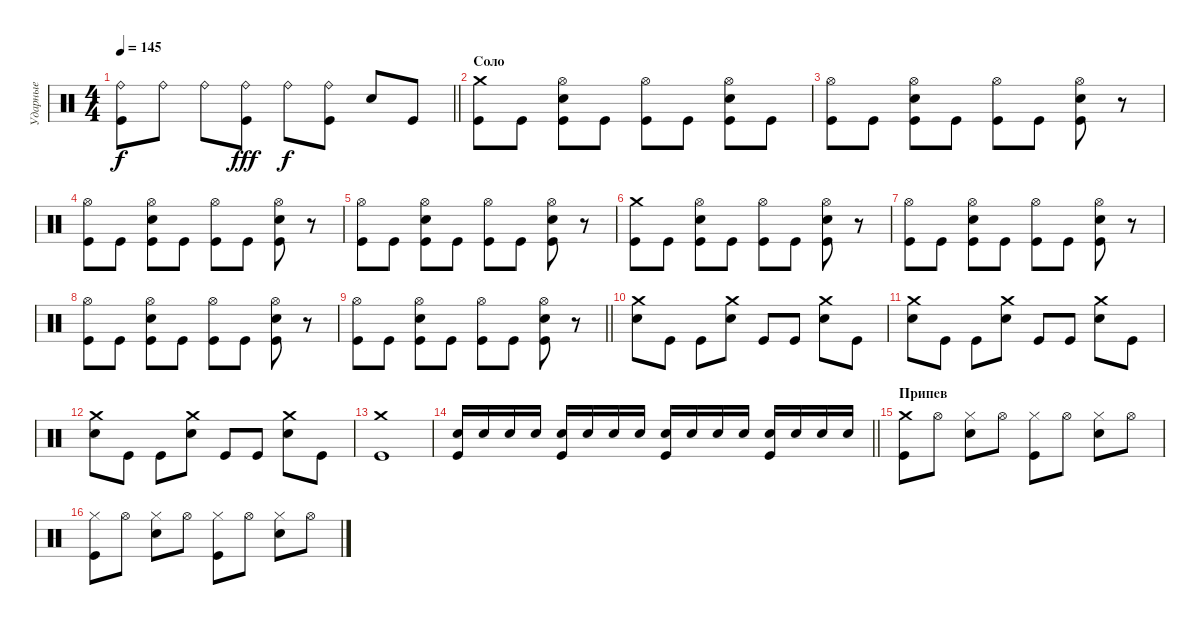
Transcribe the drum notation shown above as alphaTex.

\track ("Ударные" "Ударные") {instrument percussion}
\staff {score}
\articulation defaults
\ts (4 4)
\tempo 145
\clef neutral
\barLineRight lightlight
\ks c
("Ride (bell)" "Kick (hit)").8{dy f} "Ride (bell)".8 "Ride (bell)".8 ("Ride (bell)" "Kick (hit)").8{dy fff} "Ride (bell)".8{dy f} ("Ride (bell)" "Kick (hit)").8 "Electric Snare (hit)".8 "Kick (hit)".8 |
\section ("" "Соло")
("Crash medium (hit)" "Kick (hit)").8 "Kick (hit)".8 ("Hi-Hat (open)" "Electric Snare (hit)" "Kick (hit)").8 "Kick (hit)".8 ("Hi-Hat (open)" "Kick (hit)").8 "Kick (hit)".8 ("Hi-Hat (open)" "Electric Snare (hit)" "Kick (hit)").8 "Kick (hit)".8 |
("Hi-Hat (open)" "Kick (hit)").8 "Kick (hit)".8 ("Hi-Hat (open)" "Electric Snare (hit)" "Kick (hit)").8 "Kick (hit)".8 ("Hi-Hat (open)" "Kick (hit)").8 "Kick (hit)".8 ("Hi-Hat (open)" "Electric Snare (hit)" "Kick (hit)").8 r.8 |
("Hi-Hat (open)" "Kick (hit)").8 "Kick (hit)".8 ("Hi-Hat (open)" "Electric Snare (hit)" "Kick (hit)").8 "Kick (hit)".8 ("Hi-Hat (open)" "Kick (hit)").8 "Kick (hit)".8 ("Hi-Hat (open)" "Electric Snare (hit)" "Kick (hit)").8 r.8 |
("Hi-Hat (open)" "Kick (hit)").8 "Kick (hit)".8 ("Hi-Hat (open)" "Electric Snare (hit)" "Kick (hit)").8 "Kick (hit)".8 ("Hi-Hat (open)" "Kick (hit)").8 "Kick (hit)".8 ("Hi-Hat (open)" "Electric Snare (hit)" "Kick (hit)").8 r.8 |
("Crash medium (hit)" "Kick (hit)").8 "Kick (hit)".8 ("Hi-Hat (open)" "Electric Snare (hit)" "Kick (hit)").8 "Kick (hit)".8 ("Hi-Hat (open)" "Kick (hit)").8 "Kick (hit)".8 ("Hi-Hat (open)" "Electric Snare (hit)" "Kick (hit)").8 r.8 |
("Hi-Hat (open)" "Kick (hit)").8 "Kick (hit)".8 ("Hi-Hat (open)" "Electric Snare (hit)" "Kick (hit)").8 "Kick (hit)".8 ("Hi-Hat (open)" "Kick (hit)").8 "Kick (hit)".8 ("Hi-Hat (open)" "Electric Snare (hit)" "Kick (hit)").8 r.8 |
("Hi-Hat (open)" "Kick (hit)").8 "Kick (hit)".8 ("Hi-Hat (open)" "Electric Snare (hit)" "Kick (hit)").8 "Kick (hit)".8 ("Hi-Hat (open)" "Kick (hit)").8 "Kick (hit)".8 ("Hi-Hat (open)" "Electric Snare (hit)" "Kick (hit)").8 r.8 |
\barLineRight lightlight
("Hi-Hat (open)" "Kick (hit)").8 "Kick (hit)".8 ("Hi-Hat (open)" "Electric Snare (hit)" "Kick (hit)").8 "Kick (hit)".8 ("Hi-Hat (open)" "Kick (hit)").8 "Kick (hit)".8 ("Hi-Hat (open)" "Electric Snare (hit)" "Kick (hit)").8 r.8 |
\section ("" " ")
("Crash medium (hit)" "Electric Snare (hit)").8 "Kick (hit)".8 "Kick (hit)".8 ("Crash medium (hit)" "Electric Snare (hit)").8 "Kick (hit)".8 "Kick (hit)".8 ("Crash medium (hit)" "Electric Snare (hit)").8 "Kick (hit)".8 |
("Crash medium (hit)" "Electric Snare (hit)").8 "Kick (hit)".8 "Kick (hit)".8 ("Crash medium (hit)" "Electric Snare (hit)").8 "Kick (hit)".8 "Kick (hit)".8 ("Crash medium (hit)" "Electric Snare (hit)").8 "Kick (hit)".8 |
("Crash medium (hit)" "Electric Snare (hit)").8 "Kick (hit)".8 "Kick (hit)".8 ("Crash medium (hit)" "Electric Snare (hit)").8 "Kick (hit)".8 "Kick (hit)".8 ("Crash medium (hit)" "Electric Snare (hit)").8 "Kick (hit)".8 |
("Crash medium (hit)" "Kick (hit)").1 |
\barLineRight lightlight
("Electric Snare (hit)" "Kick (hit)").16 "Electric Snare (hit)".16 "Electric Snare (hit)".16 "Electric Snare (hit)".16 ("Electric Snare (hit)" "Kick (hit)").16 "Electric Snare (hit)".16 "Electric Snare (hit)".16 "Electric Snare (hit)".16 ("Electric Snare (hit)" "Kick (hit)").16 "Electric Snare (hit)".16 "Electric Snare (hit)".16 "Electric Snare (hit)".16 ("Electric Snare (hit)" "Kick (hit)").16 "Electric Snare (hit)".16 "Electric Snare (hit)".16 "Electric Snare (hit)".16 |
\section ("" "Припев")
("Crash medium (hit)" "Kick (hit)").8 "Hi-Hat (open)".8 ("Hi-Hat (closed)" "Electric Snare (hit)").8 "Hi-Hat (open)".8 ("Hi-Hat (closed)" "Kick (hit)").8 "Hi-Hat (open)".8 ("Hi-Hat (closed)" "Electric Snare (hit)").8 "Hi-Hat (open)".8 |
("Hi-Hat (closed)" "Kick (hit)").8 "Hi-Hat (open)".8 ("Hi-Hat (closed)" "Electric Snare (hit)").8 "Hi-Hat (open)".8 ("Hi-Hat (closed)" "Kick (hit)").8 "Hi-Hat (open)".8 ("Hi-Hat (closed)" "Electric Snare (hit)").8 "Hi-Hat (open)".8
